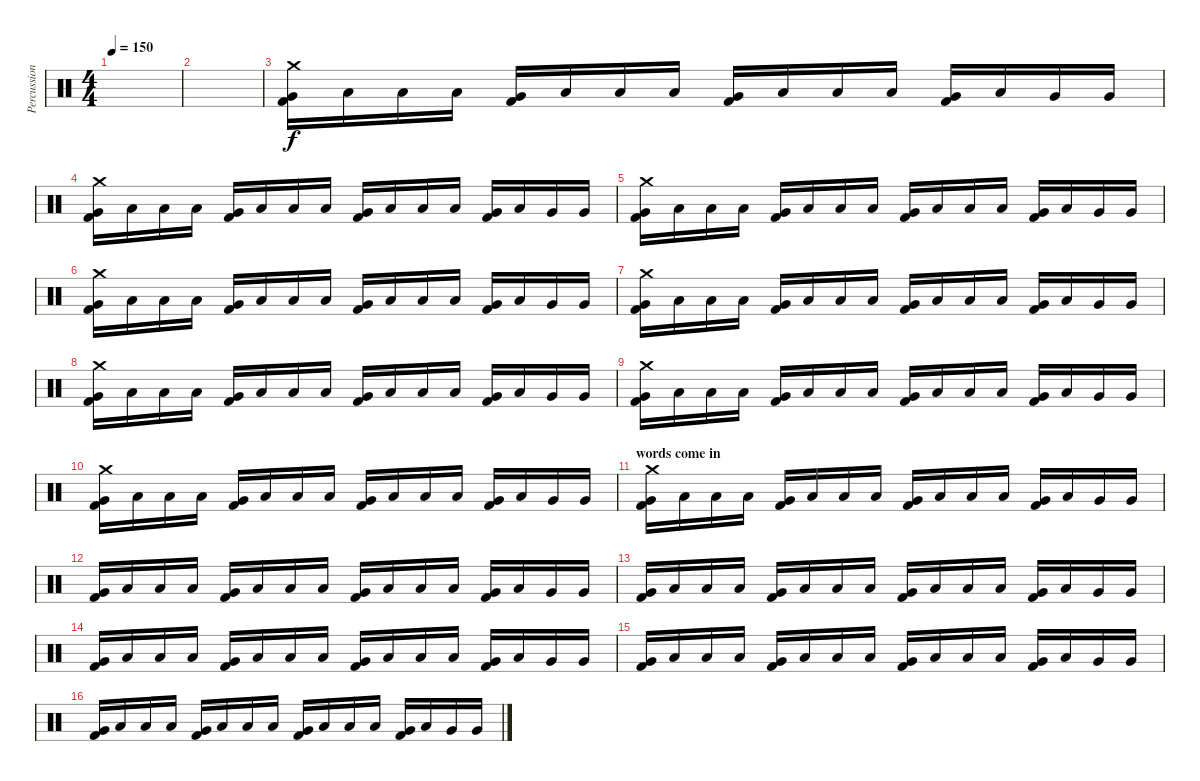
\track ("Percussion" "Percussion") {instrument percussion}
\staff {score}
\articulation defaults
\ts (4 4)
\tempo 150
\clef neutral
\ks c
|
|
("Crash medium (hit)" "Very Low Tom (hit)" "Kick (hit) 2").16 "Low Floor Tom (hit)".16 "Low Floor Tom (hit)".16 "Low Floor Tom (hit)".16 ("Very Low Tom (hit)" "Kick (hit) 2").16 "Low Floor Tom (hit)".16 "Low Floor Tom (hit)".16 "Low Floor Tom (hit)".16 ("Very Low Tom (hit)" "Kick (hit) 2").16 "Low Floor Tom (hit)".16 "Low Floor Tom (hit)".16 "Low Floor Tom (hit)".16 ("Very Low Tom (hit)" "Kick (hit) 2").16 "Low Floor Tom (hit)".16 "Very Low Tom (hit)".16 "Very Low Tom (hit)".16 |
("Crash medium (hit)" "Very Low Tom (hit)" "Kick (hit) 2").16 "Low Floor Tom (hit)".16 "Low Floor Tom (hit)".16 "Low Floor Tom (hit)".16 ("Very Low Tom (hit)" "Kick (hit) 2").16 "Low Floor Tom (hit)".16 "Low Floor Tom (hit)".16 "Low Floor Tom (hit)".16 ("Very Low Tom (hit)" "Kick (hit) 2").16 "Low Floor Tom (hit)".16 "Low Floor Tom (hit)".16 "Low Floor Tom (hit)".16 ("Very Low Tom (hit)" "Kick (hit) 2").16 "Low Floor Tom (hit)".16 "Very Low Tom (hit)".16 "Very Low Tom (hit)".16 |
("Crash medium (hit)" "Very Low Tom (hit)" "Kick (hit) 2").16 "Low Floor Tom (hit)".16 "Low Floor Tom (hit)".16 "Low Floor Tom (hit)".16 ("Very Low Tom (hit)" "Kick (hit) 2").16 "Low Floor Tom (hit)".16 "Low Floor Tom (hit)".16 "Low Floor Tom (hit)".16 ("Very Low Tom (hit)" "Kick (hit) 2").16 "Low Floor Tom (hit)".16 "Low Floor Tom (hit)".16 "Low Floor Tom (hit)".16 ("Very Low Tom (hit)" "Kick (hit) 2").16 "Low Floor Tom (hit)".16 "Very Low Tom (hit)".16 "Very Low Tom (hit)".16 |
("Crash medium (hit)" "Very Low Tom (hit)" "Kick (hit) 2").16 "Low Floor Tom (hit)".16 "Low Floor Tom (hit)".16 "Low Floor Tom (hit)".16 ("Very Low Tom (hit)" "Kick (hit) 2").16 "Low Floor Tom (hit)".16 "Low Floor Tom (hit)".16 "Low Floor Tom (hit)".16 ("Very Low Tom (hit)" "Kick (hit) 2").16 "Low Floor Tom (hit)".16 "Low Floor Tom (hit)".16 "Low Floor Tom (hit)".16 ("Very Low Tom (hit)" "Kick (hit) 2").16 "Low Floor Tom (hit)".16 "Very Low Tom (hit)".16 "Very Low Tom (hit)".16 |
("Crash medium (hit)" "Very Low Tom (hit)" "Kick (hit) 2").16 "Low Floor Tom (hit)".16 "Low Floor Tom (hit)".16 "Low Floor Tom (hit)".16 ("Very Low Tom (hit)" "Kick (hit) 2").16 "Low Floor Tom (hit)".16 "Low Floor Tom (hit)".16 "Low Floor Tom (hit)".16 ("Very Low Tom (hit)" "Kick (hit) 2").16 "Low Floor Tom (hit)".16 "Low Floor Tom (hit)".16 "Low Floor Tom (hit)".16 ("Very Low Tom (hit)" "Kick (hit) 2").16 "Low Floor Tom (hit)".16 "Very Low Tom (hit)".16 "Very Low Tom (hit)".16 |
("Crash medium (hit)" "Very Low Tom (hit)" "Kick (hit) 2").16 "Low Floor Tom (hit)".16 "Low Floor Tom (hit)".16 "Low Floor Tom (hit)".16 ("Very Low Tom (hit)" "Kick (hit) 2").16 "Low Floor Tom (hit)".16 "Low Floor Tom (hit)".16 "Low Floor Tom (hit)".16 ("Very Low Tom (hit)" "Kick (hit) 2").16 "Low Floor Tom (hit)".16 "Low Floor Tom (hit)".16 "Low Floor Tom (hit)".16 ("Very Low Tom (hit)" "Kick (hit) 2").16 "Low Floor Tom (hit)".16 "Very Low Tom (hit)".16 "Very Low Tom (hit)".16 |
("Crash medium (hit)" "Very Low Tom (hit)" "Kick (hit) 2").16 "Low Floor Tom (hit)".16 "Low Floor Tom (hit)".16 "Low Floor Tom (hit)".16 ("Very Low Tom (hit)" "Kick (hit) 2").16 "Low Floor Tom (hit)".16 "Low Floor Tom (hit)".16 "Low Floor Tom (hit)".16 ("Very Low Tom (hit)" "Kick (hit) 2").16 "Low Floor Tom (hit)".16 "Low Floor Tom (hit)".16 "Low Floor Tom (hit)".16 ("Very Low Tom (hit)" "Kick (hit) 2").16 "Low Floor Tom (hit)".16 "Very Low Tom (hit)".16 "Very Low Tom (hit)".16 |
("Crash medium (hit)" "Very Low Tom (hit)" "Kick (hit) 2").16 "Low Floor Tom (hit)".16 "Low Floor Tom (hit)".16 "Low Floor Tom (hit)".16 ("Very Low Tom (hit)" "Kick (hit) 2").16 "Low Floor Tom (hit)".16 "Low Floor Tom (hit)".16 "Low Floor Tom (hit)".16 ("Very Low Tom (hit)" "Kick (hit) 2").16 "Low Floor Tom (hit)".16 "Low Floor Tom (hit)".16 "Low Floor Tom (hit)".16 ("Very Low Tom (hit)" "Kick (hit) 2").16 "Low Floor Tom (hit)".16 "Very Low Tom (hit)".16 "Very Low Tom (hit)".16 |
\section ("" "words come in")
("Crash medium (hit)" "Very Low Tom (hit)" "Kick (hit) 2").16 "Low Floor Tom (hit)".16 "Low Floor Tom (hit)".16 "Low Floor Tom (hit)".16 ("Very Low Tom (hit)" "Kick (hit) 2").16 "Low Floor Tom (hit)".16 "Low Floor Tom (hit)".16 "Low Floor Tom (hit)".16 ("Very Low Tom (hit)" "Kick (hit) 2").16 "Low Floor Tom (hit)".16 "Low Floor Tom (hit)".16 "Low Floor Tom (hit)".16 ("Very Low Tom (hit)" "Kick (hit) 2").16 "Low Floor Tom (hit)".16 "Very Low Tom (hit)".16 "Very Low Tom (hit)".16 |
("Very Low Tom (hit)" "Kick (hit) 2").16 "Low Floor Tom (hit)".16 "Low Floor Tom (hit)".16 "Low Floor Tom (hit)".16 ("Very Low Tom (hit)" "Kick (hit) 2").16 "Low Floor Tom (hit)".16 "Low Floor Tom (hit)".16 "Low Floor Tom (hit)".16 ("Very Low Tom (hit)" "Kick (hit) 2").16 "Low Floor Tom (hit)".16 "Low Floor Tom (hit)".16 "Low Floor Tom (hit)".16 ("Very Low Tom (hit)" "Kick (hit) 2").16 "Low Floor Tom (hit)".16 "Very Low Tom (hit)".16 "Very Low Tom (hit)".16 |
("Very Low Tom (hit)" "Kick (hit) 2").16 "Low Floor Tom (hit)".16 "Low Floor Tom (hit)".16 "Low Floor Tom (hit)".16 ("Very Low Tom (hit)" "Kick (hit) 2").16 "Low Floor Tom (hit)".16 "Low Floor Tom (hit)".16 "Low Floor Tom (hit)".16 ("Very Low Tom (hit)" "Kick (hit) 2").16 "Low Floor Tom (hit)".16 "Low Floor Tom (hit)".16 "Low Floor Tom (hit)".16 ("Very Low Tom (hit)" "Kick (hit) 2").16 "Low Floor Tom (hit)".16 "Very Low Tom (hit)".16 "Very Low Tom (hit)".16 |
("Very Low Tom (hit)" "Kick (hit) 2").16 "Low Floor Tom (hit)".16 "Low Floor Tom (hit)".16 "Low Floor Tom (hit)".16 ("Very Low Tom (hit)" "Kick (hit) 2").16 "Low Floor Tom (hit)".16 "Low Floor Tom (hit)".16 "Low Floor Tom (hit)".16 ("Very Low Tom (hit)" "Kick (hit) 2").16 "Low Floor Tom (hit)".16 "Low Floor Tom (hit)".16 "Low Floor Tom (hit)".16 ("Very Low Tom (hit)" "Kick (hit) 2").16 "Low Floor Tom (hit)".16 "Very Low Tom (hit)".16 "Very Low Tom (hit)".16 |
("Very Low Tom (hit)" "Kick (hit) 2").16 "Low Floor Tom (hit)".16 "Low Floor Tom (hit)".16 "Low Floor Tom (hit)".16 ("Very Low Tom (hit)" "Kick (hit) 2").16 "Low Floor Tom (hit)".16 "Low Floor Tom (hit)".16 "Low Floor Tom (hit)".16 ("Very Low Tom (hit)" "Kick (hit) 2").16 "Low Floor Tom (hit)".16 "Low Floor Tom (hit)".16 "Low Floor Tom (hit)".16 ("Very Low Tom (hit)" "Kick (hit) 2").16 "Low Floor Tom (hit)".16 "Very Low Tom (hit)".16 "Very Low Tom (hit)".16 |
("Very Low Tom (hit)" "Kick (hit) 2").16 "Low Floor Tom (hit)".16 "Low Floor Tom (hit)".16 "Low Floor Tom (hit)".16 ("Very Low Tom (hit)" "Kick (hit) 2").16 "Low Floor Tom (hit)".16 "Low Floor Tom (hit)".16 "Low Floor Tom (hit)".16 ("Very Low Tom (hit)" "Kick (hit) 2").16 "Low Floor Tom (hit)".16 "Low Floor Tom (hit)".16 "Low Floor Tom (hit)".16 ("Very Low Tom (hit)" "Kick (hit) 2").16 "Low Floor Tom (hit)".16 "Very Low Tom (hit)".16 "Very Low Tom (hit)".16
